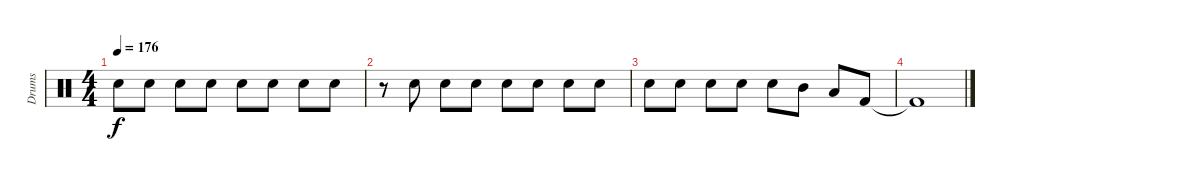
\track ("Drums" "Drums") {instrument percussion}
\staff {score}
\articulation defaults
\ts (4 4)
\tempo 176
\clef neutral
\ks c "Snare (hit) 2".8{dy f} "Snare (hit) 2".8 "Snare (hit) 2".8 "Snare (hit) 2".8 "Snare (hit) 2".8 "Snare (hit) 2".8 "Snare (hit) 2".8 "Snare (hit) 2".8
|
r.8 "Snare (hit) 2".8 "Snare (hit) 2".8 "Snare (hit) 2".8 "Snare (hit) 2".8 "Snare (hit) 2".8 "Snare (hit) 2".8 "Snare (hit) 2".8 |
"Snare (hit) 2".8 "Snare (hit) 2".8 "Snare (hit) 2".8 "Snare (hit) 2".8 "Snare (hit) 2".8 "Mid Tom (hit)".8 "Low Tom (hit)".8 "Kick (hit) 2".8 |
"Kick (hit) 2"{t}.1
